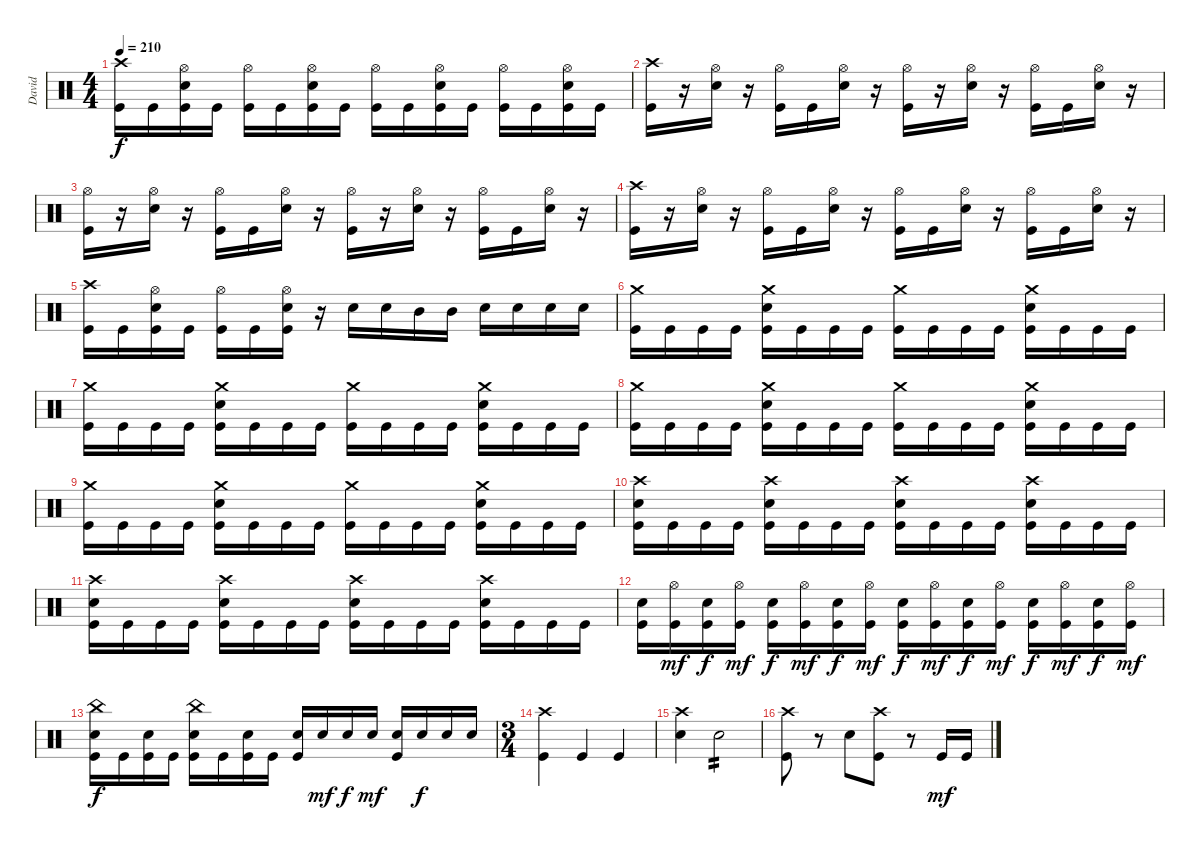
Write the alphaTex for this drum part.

\track ("David" "David") {instrument percussion}
\staff {score}
\articulation defaults
\ts (4 4)
\tempo 210
\clef neutral
\ks c
("Crash high (hit)" "Kick (hit)").16{dy f} "Kick (hit)".16 ("Hi-Hat (open)" "Electric Snare (hit)" "Kick (hit)").16 "Kick (hit)".16 ("Hi-Hat (open)" "Kick (hit)").16 "Kick (hit)".16 ("Hi-Hat (open)" "Electric Snare (hit)" "Kick (hit)").16 "Kick (hit)".16 ("Hi-Hat (open)" "Kick (hit)").16 "Kick (hit)".16 ("Hi-Hat (open)" "Electric Snare (hit)" "Kick (hit)").16 "Kick (hit)".16 ("Hi-Hat (open)" "Kick (hit)").16 "Kick (hit)".16 ("Hi-Hat (open)" "Electric Snare (hit)" "Kick (hit)").16 "Kick (hit)".16 |
("Crash high (hit)" "Kick (hit)").16 r.16 ("Hi-Hat (open)" "Electric Snare (hit)").16 r.16 ("Hi-Hat (open)" "Kick (hit)").16 "Kick (hit)".16 ("Hi-Hat (open)" "Electric Snare (hit)").16 r.16 ("Hi-Hat (open)" "Kick (hit)").16 r.16 ("Hi-Hat (open)" "Electric Snare (hit)").16 r.16 ("Hi-Hat (open)" "Kick (hit)").16 "Kick (hit)".16 ("Hi-Hat (open)" "Electric Snare (hit)").16 r.16 |
("Hi-Hat (open)" "Kick (hit)").16 r.16 ("Hi-Hat (open)" "Electric Snare (hit)").16 r.16 ("Hi-Hat (open)" "Kick (hit)").16 "Kick (hit)".16 ("Hi-Hat (open)" "Electric Snare (hit)").16 r.16 ("Hi-Hat (open)" "Kick (hit)").16 r.16 ("Hi-Hat (open)" "Electric Snare (hit)").16 r.16 ("Hi-Hat (open)" "Kick (hit)").16 "Kick (hit)".16 ("Hi-Hat (open)" "Electric Snare (hit)").16 r.16 |
("Crash high (hit)" "Kick (hit)").16 r.16 ("Hi-Hat (open)" "Electric Snare (hit)").16 r.16 ("Hi-Hat (open)" "Kick (hit)").16 "Kick (hit)".16 ("Hi-Hat (open)" "Electric Snare (hit)").16 r.16 ("Hi-Hat (open)" "Kick (hit)").16 "Kick (hit)".16 ("Hi-Hat (open)" "Electric Snare (hit)").16 r.16 ("Hi-Hat (open)" "Kick (hit)").16 "Kick (hit)".16 ("Hi-Hat (open)" "Electric Snare (hit)").16 r.16 |
("Crash high (hit)" "Kick (hit)").16 "Kick (hit)".16 ("Hi-Hat (open)" "Electric Snare (hit)" "Kick (hit)").16 "Kick (hit)".16 ("Hi-Hat (open)" "Kick (hit)").16 "Kick (hit)".16 ("Hi-Hat (open)" "Electric Snare (hit)" "Kick (hit)").16 r.16 "Electric Snare (hit)".16 "Electric Snare (hit)".16 "Mid Tom (hit)".16 "Mid Tom (hit)".16 "Electric Snare (hit)".16 "Electric Snare (hit)".16 "Electric Snare (hit)".16 "Electric Snare (hit)".16 |
("Crash medium (hit)" "Kick (hit)").16 "Kick (hit)".16 "Kick (hit)".16 "Kick (hit)".16 ("Crash medium (hit)" "Electric Snare (hit)" "Kick (hit)").16 "Kick (hit)".16 "Kick (hit)".16 "Kick (hit)".16 ("Crash medium (hit)" "Kick (hit)").16 "Kick (hit)".16 "Kick (hit)".16 "Kick (hit)".16 ("Crash medium (hit)" "Electric Snare (hit)" "Kick (hit)").16 "Kick (hit)".16 "Kick (hit)".16 "Kick (hit)".16 |
("Crash medium (hit)" "Kick (hit)").16 "Kick (hit)".16 "Kick (hit)".16 "Kick (hit)".16 ("Crash medium (hit)" "Electric Snare (hit)" "Kick (hit)").16 "Kick (hit)".16 "Kick (hit)".16 "Kick (hit)".16 ("Crash medium (hit)" "Kick (hit)").16 "Kick (hit)".16 "Kick (hit)".16 "Kick (hit)".16 ("Crash medium (hit)" "Electric Snare (hit)" "Kick (hit)").16 "Kick (hit)".16 "Kick (hit)".16 "Kick (hit)".16 |
("Crash medium (hit)" "Kick (hit)").16 "Kick (hit)".16 "Kick (hit)".16 "Kick (hit)".16 ("Crash medium (hit)" "Electric Snare (hit)" "Kick (hit)").16 "Kick (hit)".16 "Kick (hit)".16 "Kick (hit)".16 ("Crash medium (hit)" "Kick (hit)").16 "Kick (hit)".16 "Kick (hit)".16 "Kick (hit)".16 ("Crash medium (hit)" "Electric Snare (hit)" "Kick (hit)").16 "Kick (hit)".16 "Kick (hit)".16 "Kick (hit)".16 |
("Crash medium (hit)" "Kick (hit)").16 "Kick (hit)".16 "Kick (hit)".16 "Kick (hit)".16 ("Crash medium (hit)" "Electric Snare (hit)" "Kick (hit)").16 "Kick (hit)".16 "Kick (hit)".16 "Kick (hit)".16 ("Crash medium (hit)" "Kick (hit)").16 "Kick (hit)".16 "Kick (hit)".16 "Kick (hit)".16 ("Crash medium (hit)" "Electric Snare (hit)" "Kick (hit)").16 "Kick (hit)".16 "Kick (hit)".16 "Kick (hit)".16 |
("Crash high (hit)" "Electric Snare (hit)" "Kick (hit)").16 "Kick (hit)".16 "Kick (hit)".16 "Kick (hit)".16 ("Crash high (hit)" "Electric Snare (hit)" "Kick (hit)").16 "Kick (hit)".16 "Kick (hit)".16 "Kick (hit)".16 ("Crash high (hit)" "Electric Snare (hit)" "Kick (hit)").16 "Kick (hit)".16 "Kick (hit)".16 "Kick (hit)".16 ("Crash high (hit)" "Electric Snare (hit)" "Kick (hit)").16 "Kick (hit)".16 "Kick (hit)".16 "Kick (hit)".16 |
("Crash high (hit)" "Electric Snare (hit)" "Kick (hit)").16 "Kick (hit)".16 "Kick (hit)".16 "Kick (hit)".16 ("Crash high (hit)" "Electric Snare (hit)" "Kick (hit)").16 "Kick (hit)".16 "Kick (hit)".16 "Kick (hit)".16 ("Crash high (hit)" "Electric Snare (hit)" "Kick (hit)").16 "Kick (hit)".16 "Kick (hit)".16 "Kick (hit)".16 ("Crash high (hit)" "Electric Snare (hit)" "Kick (hit)").16 "Kick (hit)".16 "Kick (hit)".16 "Kick (hit)".16 |
("Electric Snare (hit)" "Kick (hit)").16 ("Hi-Hat (open)" "Kick (hit)").16{dy mf} ("Electric Snare (hit)" "Kick (hit)").16{dy f} ("Hi-Hat (open)" "Kick (hit)").16{dy mf} ("Electric Snare (hit)" "Kick (hit)").16{dy f} ("Hi-Hat (open)" "Kick (hit)").16{dy mf} ("Electric Snare (hit)" "Kick (hit)").16{dy f} ("Hi-Hat (open)" "Kick (hit)").16{dy mf} ("Electric Snare (hit)" "Kick (hit)").16{dy f} ("Hi-Hat (open)" "Kick (hit)").16{dy mf} ("Electric Snare (hit)" "Kick (hit)").16{dy f} ("Hi-Hat (open)" "Kick (hit)").16{dy mf} ("Electric Snare (hit)" "Kick (hit)").16{dy f} ("Hi-Hat (open)" "Kick (hit)").16{dy mf} ("Electric Snare (hit)" "Kick (hit)").16{dy f} ("Hi-Hat (open)" "Kick (hit)").16{dy mf} |
("China (hit)" "Electric Snare (hit)" "Kick (hit)").16{dy f} "Kick (hit)".16 ("Electric Snare (hit)" "Kick (hit)").16 "Kick (hit)".16 ("China (hit)" "Electric Snare (hit)" "Kick (hit)").16 "Kick (hit)".16 ("Electric Snare (hit)" "Kick (hit)").16 "Kick (hit)".16 ("Electric Snare (hit)" "Kick (hit)").16 "Electric Snare (hit)".16{dy mf} "Electric Snare (hit)".16{dy f} "Electric Snare (hit)".16{dy mf} ("Electric Snare (hit)" "Kick (hit)").16 "Electric Snare (hit)".16{dy f} "Electric Snare (hit)".16 "Electric Snare (hit)".16 |
\ts (3 4)
("Crash high (hit)" "Kick (hit)").4 "Kick (hit)".4 "Kick (hit)".4 |
("Crash high (hit)" "Electric Snare (hit)").4 "Electric Snare (hit)".2{tp 2} |
("Crash high (hit)" "Kick (hit)").8 r.8 "Electric Snare (hit)".8 ("Crash high (hit)" "Kick (hit)").8 r.8 "Kick (hit)".16{dy mf} "Kick (hit)".16
